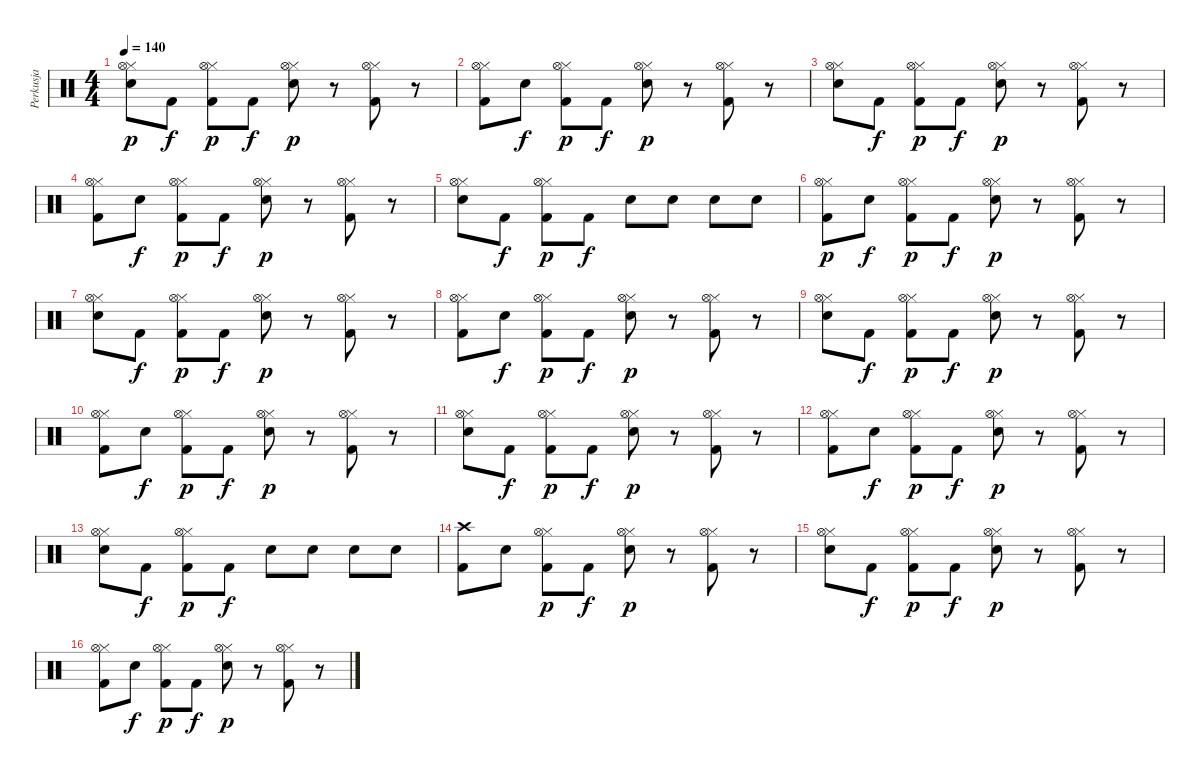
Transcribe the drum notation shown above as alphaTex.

\track ("Perkusja" "Perkusja") {instrument percussion}
\staff {score}
\articulation defaults
\ts (4 4)
\tempo 140
\clef neutral
\ks c
("Electric Snare (hit)" "Hi-Hat (closed)" "Hi-Hat (open)").8{dy p} "Kick (hit) 2".8{dy f} ("Kick (hit) 2" "Hi-Hat (closed)" "Hi-Hat (open)").8{dy p} "Kick (hit) 2".8{dy f} ("Electric Snare (hit)" "Hi-Hat (closed)" "Hi-Hat (open)").8{dy p} r.8 ("Kick (hit) 2" "Hi-Hat (closed)" "Hi-Hat (open)").8 r.8 |
("Kick (hit) 2" "Hi-Hat (closed)" "Hi-Hat (open)").8 "Electric Snare (hit)".8{dy f} ("Kick (hit) 2" "Hi-Hat (closed)" "Hi-Hat (open)").8{dy p} "Kick (hit) 2".8{dy f} ("Electric Snare (hit)" "Hi-Hat (closed)" "Hi-Hat (open)").8{dy p} r.8 ("Kick (hit) 2" "Hi-Hat (closed)" "Hi-Hat (open)").8 r.8 |
("Electric Snare (hit)" "Hi-Hat (closed)" "Hi-Hat (open)").8 "Kick (hit) 2".8{dy f} ("Kick (hit) 2" "Hi-Hat (closed)" "Hi-Hat (open)").8{dy p} "Kick (hit) 2".8{dy f} ("Electric Snare (hit)" "Hi-Hat (closed)" "Hi-Hat (open)").8{dy p} r.8 ("Kick (hit) 2" "Hi-Hat (closed)" "Hi-Hat (open)").8 r.8 |
("Kick (hit) 2" "Hi-Hat (closed)" "Hi-Hat (open)").8 "Electric Snare (hit)".8{dy f} ("Kick (hit) 2" "Hi-Hat (closed)" "Hi-Hat (open)").8{dy p} "Kick (hit) 2".8{dy f} ("Electric Snare (hit)" "Hi-Hat (closed)" "Hi-Hat (open)").8{dy p} r.8 ("Kick (hit) 2" "Hi-Hat (closed)" "Hi-Hat (open)").8 r.8 |
("Electric Snare (hit)" "Hi-Hat (closed)" "Hi-Hat (open)").8 "Kick (hit) 2".8{dy f} ("Kick (hit) 2" "Hi-Hat (closed)" "Hi-Hat (open)").8{dy p} "Kick (hit) 2".8{dy f} "Electric Snare (hit)".8 "Electric Snare (hit)".8 "Electric Snare (hit)".8 "Electric Snare (hit)".8 |
("Kick (hit) 2" "Hi-Hat (closed)" "Hi-Hat (open)").8{dy p} "Electric Snare (hit)".8{dy f} ("Kick (hit) 2" "Hi-Hat (closed)" "Hi-Hat (open)").8{dy p} "Kick (hit) 2".8{dy f} ("Electric Snare (hit)" "Hi-Hat (closed)" "Hi-Hat (open)").8{dy p} r.8 ("Kick (hit) 2" "Hi-Hat (closed)" "Hi-Hat (open)").8 r.8 |
("Electric Snare (hit)" "Hi-Hat (closed)" "Hi-Hat (open)").8 "Kick (hit) 2".8{dy f} ("Kick (hit) 2" "Hi-Hat (closed)" "Hi-Hat (open)").8{dy p} "Kick (hit) 2".8{dy f} ("Electric Snare (hit)" "Hi-Hat (closed)" "Hi-Hat (open)").8{dy p} r.8 ("Kick (hit) 2" "Hi-Hat (closed)" "Hi-Hat (open)").8 r.8 |
("Kick (hit) 2" "Hi-Hat (closed)" "Hi-Hat (open)").8 "Electric Snare (hit)".8{dy f} ("Kick (hit) 2" "Hi-Hat (closed)" "Hi-Hat (open)").8{dy p} "Kick (hit) 2".8{dy f} ("Electric Snare (hit)" "Hi-Hat (closed)" "Hi-Hat (open)").8{dy p} r.8 ("Kick (hit) 2" "Hi-Hat (closed)" "Hi-Hat (open)").8 r.8 |
("Electric Snare (hit)" "Hi-Hat (closed)" "Hi-Hat (open)").8 "Kick (hit) 2".8{dy f} ("Kick (hit) 2" "Hi-Hat (closed)" "Hi-Hat (open)").8{dy p} "Kick (hit) 2".8{dy f} ("Electric Snare (hit)" "Hi-Hat (closed)" "Hi-Hat (open)").8{dy p} r.8 ("Kick (hit) 2" "Hi-Hat (closed)" "Hi-Hat (open)").8 r.8 |
("Kick (hit) 2" "Hi-Hat (closed)" "Hi-Hat (open)").8 "Electric Snare (hit)".8{dy f} ("Kick (hit) 2" "Hi-Hat (closed)" "Hi-Hat (open)").8{dy p} "Kick (hit) 2".8{dy f} ("Electric Snare (hit)" "Hi-Hat (closed)" "Hi-Hat (open)").8{dy p} r.8 ("Kick (hit) 2" "Hi-Hat (closed)" "Hi-Hat (open)").8 r.8 |
("Electric Snare (hit)" "Hi-Hat (closed)" "Hi-Hat (open)").8 "Kick (hit) 2".8{dy f} ("Kick (hit) 2" "Hi-Hat (closed)" "Hi-Hat (open)").8{dy p} "Kick (hit) 2".8{dy f} ("Electric Snare (hit)" "Hi-Hat (closed)" "Hi-Hat (open)").8{dy p} r.8 ("Kick (hit) 2" "Hi-Hat (closed)" "Hi-Hat (open)").8 r.8 |
("Kick (hit) 2" "Hi-Hat (closed)" "Hi-Hat (open)").8 "Electric Snare (hit)".8{dy f} ("Kick (hit) 2" "Hi-Hat (closed)" "Hi-Hat (open)").8{dy p} "Kick (hit) 2".8{dy f} ("Electric Snare (hit)" "Hi-Hat (closed)" "Hi-Hat (open)").8{dy p} r.8 ("Kick (hit) 2" "Hi-Hat (closed)" "Hi-Hat (open)").8 r.8 |
("Electric Snare (hit)" "Hi-Hat (closed)" "Hi-Hat (open)").8 "Kick (hit) 2".8{dy f} ("Kick (hit) 2" "Hi-Hat (closed)" "Hi-Hat (open)").8{dy p} "Kick (hit) 2".8{dy f} "Electric Snare (hit)".8 "Electric Snare (hit)".8 "Electric Snare (hit)".8 "Electric Snare (hit)".8 |
("Kick (hit) 2" "Crash high (hit)").8 "Electric Snare (hit)".8 ("Kick (hit) 2" "Hi-Hat (closed)" "Hi-Hat (open)").8{dy p} "Kick (hit) 2".8{dy f} ("Electric Snare (hit)" "Hi-Hat (closed)" "Hi-Hat (open)").8{dy p} r.8 ("Kick (hit) 2" "Hi-Hat (closed)" "Hi-Hat (open)").8 r.8 |
("Electric Snare (hit)" "Hi-Hat (closed)" "Hi-Hat (open)").8 "Kick (hit) 2".8{dy f} ("Kick (hit) 2" "Hi-Hat (closed)" "Hi-Hat (open)").8{dy p} "Kick (hit) 2".8{dy f} ("Electric Snare (hit)" "Hi-Hat (closed)" "Hi-Hat (open)").8{dy p} r.8 ("Kick (hit) 2" "Hi-Hat (closed)" "Hi-Hat (open)").8 r.8 |
("Kick (hit) 2" "Hi-Hat (closed)" "Hi-Hat (open)").8 "Electric Snare (hit)".8{dy f} ("Kick (hit) 2" "Hi-Hat (closed)" "Hi-Hat (open)").8{dy p} "Kick (hit) 2".8{dy f} ("Electric Snare (hit)" "Hi-Hat (closed)" "Hi-Hat (open)").8{dy p} r.8 ("Kick (hit) 2" "Hi-Hat (closed)" "Hi-Hat (open)").8 r.8
